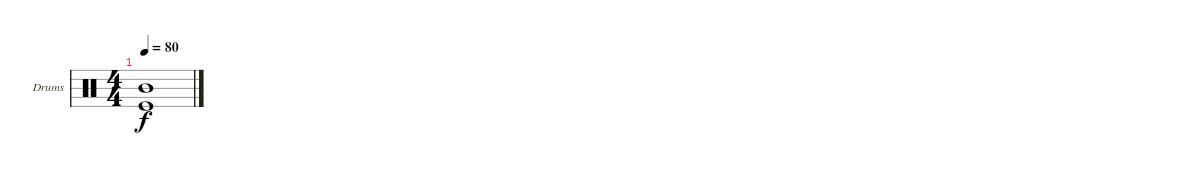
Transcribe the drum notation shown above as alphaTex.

\defaultSystemsLayout 4
\bracketExtendMode groupsimilarinstruments
\firstSystemTrackNameOrientation horizontal
\otherSystemsTrackNameOrientation horizontal
\track ("Drumkit" "Drums") {instrument percussion}
\staff {score}
\articulation defaults
\ts (4 4)
\tempo 80
\clef neutral
\ks c
("Mid Tom (hit)" "Kick (hit)").1{dy f}
